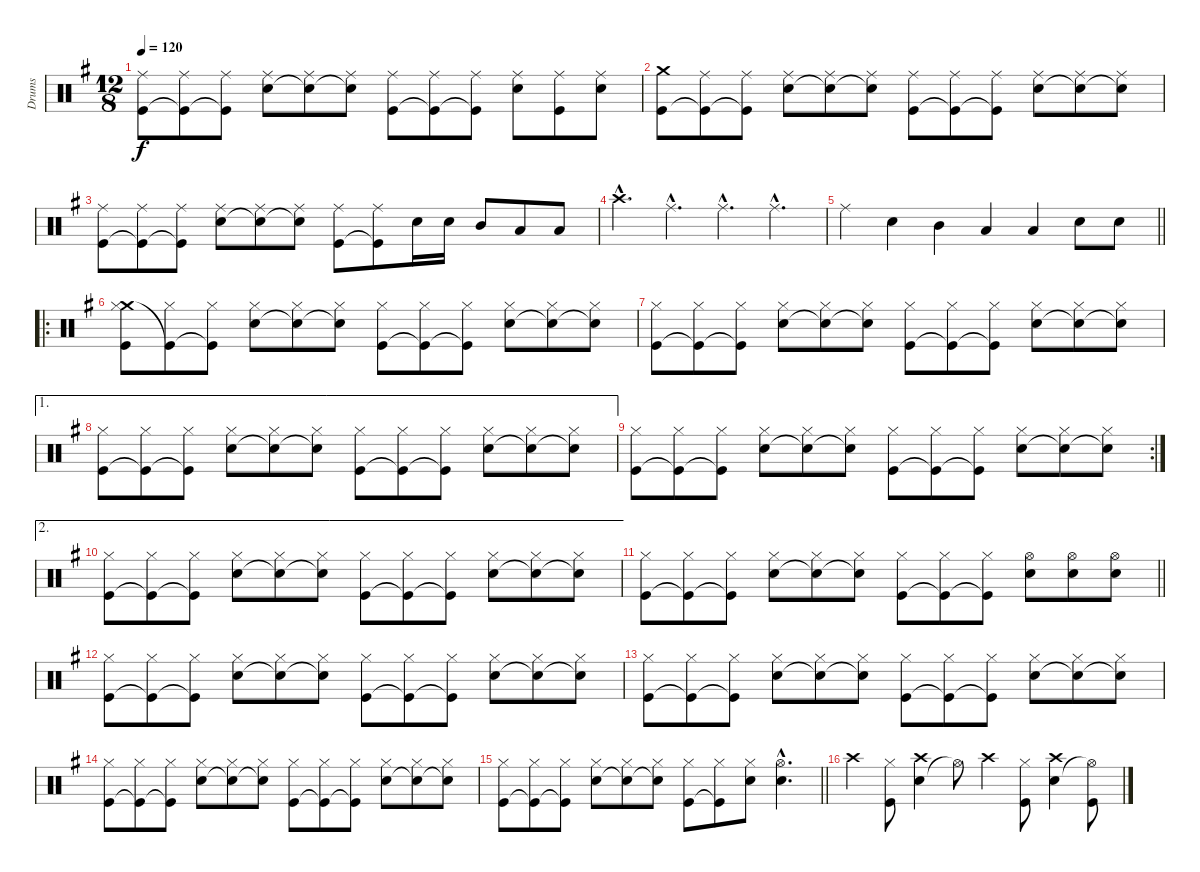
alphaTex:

\track ("Drums" "Drums") {instrument percussion}
\staff {score}
\articulation defaults
\ts (12 8)
\tempo 120
\clef neutral
\ks g
("Ride (middle)" "Kick (hit)").8{dy f} ("Ride (middle)" "Kick (hit)"{t}).8 ("Ride (middle)" "Kick (hit)"{t}).8 ("Snare (hit) 2" "Ride (middle)").8 ("Snare (hit) 2"{t} "Ride (middle)").8 ("Snare (hit) 2"{t} "Ride (middle)").8 ("Ride (middle)" "Kick (hit)").8 ("Ride (middle)" "Kick (hit)"{t}).8 ("Ride (middle)" "Kick (hit)"{t}).8 ("Snare (hit) 2" "Ride (middle)").8 ("Ride (middle)" "Kick (hit)").8 ("Snare (hit) 2" "Ride (middle)").8 |
("Crash medium (hit)" "Kick (hit)").8 ("Ride (middle)" "Kick (hit)"{t}).8 ("Ride (middle)" "Kick (hit)"{t}).8 ("Snare (hit) 2" "Ride (middle)").8 ("Snare (hit) 2"{t} "Ride (middle)").8 ("Snare (hit) 2"{t} "Ride (middle)").8 ("Ride (middle)" "Kick (hit)").8 ("Ride (middle)" "Kick (hit)"{t}).8 ("Ride (middle)" "Kick (hit)"{t}).8 ("Snare (hit) 2" "Ride (middle)").8 ("Snare (hit) 2"{t} "Ride (middle)").8 ("Snare (hit) 2"{t} "Ride (middle)").8 |
("Ride (middle)" "Kick (hit)").8 ("Ride (middle)" "Kick (hit)"{t}).8 ("Ride (middle)" "Kick (hit)"{t}).8 ("Snare (hit) 2" "Ride (middle)").8 ("Snare (hit) 2"{t} "Ride (middle)").8 ("Snare (hit) 2"{t} "Ride (middle)").8 ("Ride (middle)" "Kick (hit)").8 ("Ride (middle)" "Kick (hit)"{t}).8 "Snare (hit) 2".16 "Snare (hit) 2".16 "Mid Tom (hit)".8 "Low Tom (hit)".8 "Low Tom (hit)".8 |
"Crash high (hit)"{hac}.4{d} "Ride (middle)"{hac}.4{d} "Ride (middle)"{hac}.4{d} "Ride (middle)"{hac}.4{d} |
\barLineRight lightlight "Ride (middle)".4 "Snare (hit) 2".4 "Mid Tom (hit)".4 "Low Tom (hit)".4 "Low Tom (hit)".4 "Snare (hit) 2".8 "Snare (hit) 2".8
|
\ro
("Crash medium (hit)" "Hi-Hat (closed)" "Kick (hit)").8 ("Hi-Hat (closed)" "Kick (hit)"{t}).8 ("Hi-Hat (closed)" "Kick (hit)"{t}).8 ("Snare (hit) 2" "Hi-Hat (closed)").8 ("Snare (hit) 2"{t} "Hi-Hat (closed)").8 ("Snare (hit) 2"{t} "Hi-Hat (closed)").8 ("Hi-Hat (closed)" "Kick (hit)").8 ("Hi-Hat (closed)" "Kick (hit)"{t}).8 ("Hi-Hat (closed)" "Kick (hit)"{t}).8 ("Snare (hit) 2" "Hi-Hat (closed)").8 ("Snare (hit) 2"{t} "Hi-Hat (closed)").8 ("Snare (hit) 2"{t} "Hi-Hat (closed)").8 |
("Hi-Hat (closed)" "Kick (hit)").8 ("Hi-Hat (closed)" "Kick (hit)"{t}).8 ("Hi-Hat (closed)" "Kick (hit)"{t}).8 ("Snare (hit) 2" "Hi-Hat (closed)").8 ("Snare (hit) 2"{t} "Hi-Hat (closed)").8 ("Snare (hit) 2"{t} "Hi-Hat (closed)").8 ("Hi-Hat (closed)" "Kick (hit)").8 ("Hi-Hat (closed)" "Kick (hit)"{t}).8 ("Hi-Hat (closed)" "Kick (hit)"{t}).8 ("Snare (hit) 2" "Hi-Hat (closed)").8 ("Snare (hit) 2"{t} "Hi-Hat (closed)").8 ("Snare (hit) 2"{t} "Hi-Hat (closed)").8 |
\ae 1
("Hi-Hat (closed)" "Kick (hit)").8 ("Hi-Hat (closed)" "Kick (hit)"{t}).8 ("Hi-Hat (closed)" "Kick (hit)"{t}).8 ("Snare (hit) 2" "Hi-Hat (closed)").8 ("Snare (hit) 2"{t} "Hi-Hat (closed)").8 ("Snare (hit) 2"{t} "Hi-Hat (closed)").8 ("Hi-Hat (closed)" "Kick (hit)").8 ("Hi-Hat (closed)" "Kick (hit)"{t}).8 ("Hi-Hat (closed)" "Kick (hit)"{t}).8 ("Snare (hit) 2" "Hi-Hat (closed)").8 ("Snare (hit) 2"{t} "Hi-Hat (closed)").8 ("Snare (hit) 2"{t} "Hi-Hat (closed)").8 |
\rc 2
("Hi-Hat (closed)" "Kick (hit)").8 ("Hi-Hat (closed)" "Kick (hit)"{t}).8 ("Hi-Hat (closed)" "Kick (hit)"{t}).8 ("Snare (hit) 2" "Hi-Hat (closed)").8 ("Snare (hit) 2"{t} "Hi-Hat (closed)").8 ("Snare (hit) 2"{t} "Hi-Hat (closed)").8 ("Hi-Hat (closed)" "Kick (hit)").8 ("Hi-Hat (closed)" "Kick (hit)"{t}).8 ("Hi-Hat (closed)" "Kick (hit)"{t}).8 ("Snare (hit) 2" "Hi-Hat (closed)").8 ("Snare (hit) 2"{t} "Hi-Hat (closed)").8 ("Snare (hit) 2"{t} "Hi-Hat (closed)").8 |
\ae 2
("Hi-Hat (closed)" "Kick (hit)").8 ("Hi-Hat (closed)" "Kick (hit)"{t}).8 ("Hi-Hat (closed)" "Kick (hit)"{t}).8 ("Snare (hit) 2" "Hi-Hat (closed)").8 ("Snare (hit) 2"{t} "Hi-Hat (closed)").8 ("Snare (hit) 2"{t} "Hi-Hat (closed)").8 ("Hi-Hat (closed)" "Kick (hit)").8 ("Hi-Hat (closed)" "Kick (hit)"{t}).8 ("Hi-Hat (closed)" "Kick (hit)"{t}).8 ("Snare (hit) 2" "Hi-Hat (closed)").8 ("Snare (hit) 2"{t} "Hi-Hat (closed)").8 ("Snare (hit) 2"{t} "Hi-Hat (closed)").8 |
\barLineRight lightlight
("Hi-Hat (closed)" "Kick (hit)").8 ("Hi-Hat (closed)" "Kick (hit)"{t}).8 ("Hi-Hat (closed)" "Kick (hit)"{t}).8 ("Snare (hit) 2" "Hi-Hat (closed)").8 ("Snare (hit) 2"{t} "Hi-Hat (closed)").8 ("Snare (hit) 2"{t} "Hi-Hat (closed)").8 ("Hi-Hat (closed)" "Kick (hit)").8 ("Hi-Hat (closed)" "Kick (hit)"{t}).8 ("Hi-Hat (closed)" "Kick (hit)"{t}).8 ("Snare (hit) 2" "Hi-Hat (open)").8 ("Snare (hit) 2" "Hi-Hat (open)").8 ("Snare (hit) 2" "Hi-Hat (open)").8 |
("Hi-Hat (closed)" "Kick (hit)").8 ("Hi-Hat (closed)" "Kick (hit)"{t}).8 ("Hi-Hat (closed)" "Kick (hit)"{t}).8 ("Snare (hit) 2" "Hi-Hat (closed)").8 ("Snare (hit) 2"{t} "Hi-Hat (closed)").8 ("Snare (hit) 2"{t} "Hi-Hat (closed)").8 ("Hi-Hat (closed)" "Kick (hit)").8 ("Hi-Hat (closed)" "Kick (hit)"{t}).8 ("Hi-Hat (closed)" "Kick (hit)"{t}).8 ("Snare (hit) 2" "Hi-Hat (closed)").8 ("Snare (hit) 2"{t} "Hi-Hat (closed)").8 ("Snare (hit) 2"{t} "Hi-Hat (closed)").8 |
("Hi-Hat (closed)" "Kick (hit)").8 ("Hi-Hat (closed)" "Kick (hit)"{t}).8 ("Hi-Hat (closed)" "Kick (hit)"{t}).8 ("Snare (hit) 2" "Hi-Hat (closed)").8 ("Snare (hit) 2"{t} "Hi-Hat (closed)").8 ("Snare (hit) 2"{t} "Hi-Hat (closed)").8 ("Hi-Hat (closed)" "Kick (hit)").8 ("Hi-Hat (closed)" "Kick (hit)"{t}).8 ("Hi-Hat (closed)" "Kick (hit)"{t}).8 ("Snare (hit) 2" "Hi-Hat (closed)").8 ("Snare (hit) 2"{t} "Hi-Hat (closed)").8 ("Snare (hit) 2"{t} "Hi-Hat (closed)").8 |
("Hi-Hat (closed)" "Kick (hit)").8 ("Hi-Hat (closed)" "Kick (hit)"{t}).8 ("Hi-Hat (closed)" "Kick (hit)"{t}).8 ("Snare (hit) 2" "Hi-Hat (closed)").8 ("Snare (hit) 2"{t} "Hi-Hat (closed)").8 ("Snare (hit) 2"{t} "Hi-Hat (closed)").8 ("Hi-Hat (closed)" "Kick (hit)").8 ("Hi-Hat (closed)" "Kick (hit)"{t}).8 ("Hi-Hat (closed)" "Kick (hit)"{t}).8 ("Snare (hit) 2" "Hi-Hat (closed)").8 ("Snare (hit) 2"{t} "Hi-Hat (closed)").8 ("Snare (hit) 2"{t} "Hi-Hat (closed)").8 |
\barLineRight lightlight
("Hi-Hat (closed)" "Kick (hit)").8 ("Hi-Hat (closed)" "Kick (hit)"{t}).8 ("Hi-Hat (closed)" "Kick (hit)"{t}).8 ("Snare (hit) 2" "Hi-Hat (closed)").8 ("Snare (hit) 2"{t} "Hi-Hat (closed)").8 ("Snare (hit) 2"{t} "Hi-Hat (closed)").8 ("Hi-Hat (closed)" "Kick (hit)").8 ("Hi-Hat (closed)" "Kick (hit)"{t}).8 ("Snare (hit) 2" "Hi-Hat (closed)").8 ("Snare (hit) 2"{hac} "Hi-Hat (open)"{hac}).4{d} |
"Crash high (hit)".4 ("Hi-Hat (closed)" "Kick (hit)").8 ("Snare (hit) 2" "Crash high (hit)").4 "Hi-Hat (open)"{t}.8 "Crash high (hit)".4 ("Hi-Hat (closed)" "Kick (hit)").8 ("Snare (hit) 2" "Crash high (hit)").4 ("Hi-Hat (open)"{t} "Kick (hit)").8
